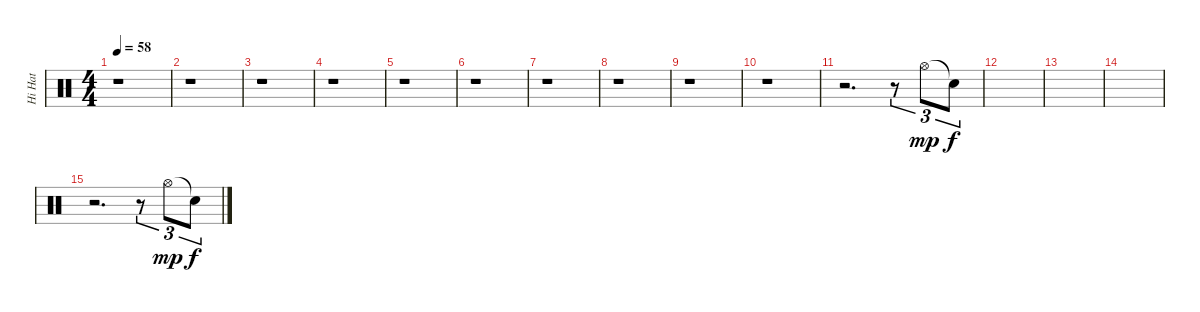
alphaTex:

\track ("Hi Hat" "Hi Hat") {instrument percussion}
\staff {score}
\articulation defaults
\ts (4 4)
\tempo 58
\clef neutral
\ks c
r.1{dy mp} |
r.1 |
r.1 |
r.1 |
r.1 |
r.1 |
r.1 |
r.1 |
r.1 |
r.1 |
r.2{d} r.8{tu (3 2)} "Hi-Hat (open)".8{tu (3 2)} "Snare (hit)"{t}.8{tu (3 2) dy f} |
|
|
|
r.2{d} r.8{tu (3 2)} "Hi-Hat (open)".8{tu (3 2) dy mp} "Snare (hit)"{t}.8{tu (3 2) dy f}
